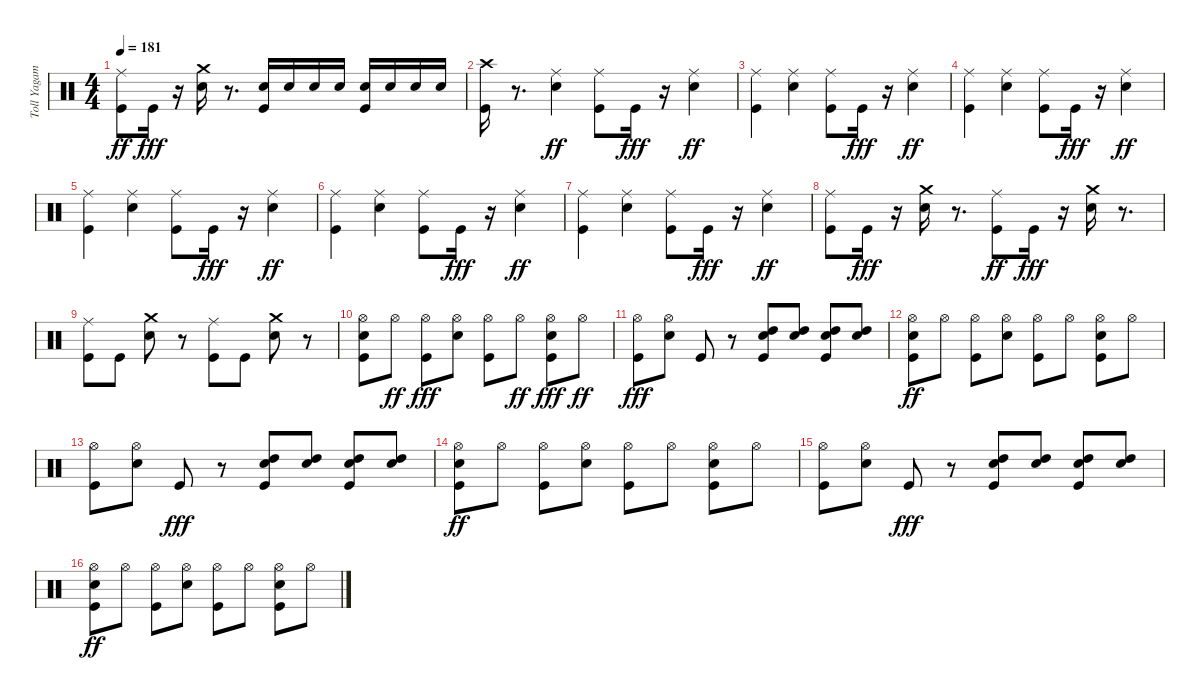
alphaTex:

\track ("Toll Yagami" "Toll Yagam") {instrument percussion}
\staff {score}
\articulation defaults
\ts (4 4)
\tempo 181
\clef neutral
\ks c
("Kick (hit)" "Ride (middle)").8{dy ff} "Kick (hit)".16{dy fff} r.16 ("Crash medium (hit)" "Snare (hit) 2").16 r.8{d} ("Kick (hit)" "Snare (hit) 2").16 "Snare (hit) 2".16 "Snare (hit) 2".16 "Snare (hit) 2".16 ("Kick (hit)" "Snare (hit) 2").16 "Snare (hit) 2".16 "Snare (hit) 2".16 "Snare (hit) 2".16 |
("Kick (hit)" "Crash high (hit)").16 r.8{d} ("Snare (hit) 2" "Ride (middle)").4{dy ff} ("Kick (hit)" "Ride (middle)").8 "Kick (hit)".16{dy fff} r.16 ("Snare (hit) 2" "Ride (middle)").4{dy ff} |
("Kick (hit)" "Ride (middle)").4 ("Snare (hit) 2" "Ride (middle)").4 ("Kick (hit)" "Ride (middle)").8 "Kick (hit)".16{dy fff} r.16 ("Snare (hit) 2" "Ride (middle)").4{dy ff} |
("Kick (hit)" "Ride (middle)").4 ("Snare (hit) 2" "Ride (middle)").4 ("Kick (hit)" "Ride (middle)").8 "Kick (hit)".16{dy fff} r.16 ("Snare (hit) 2" "Ride (middle)").4{dy ff} |
("Kick (hit)" "Ride (middle)").4 ("Snare (hit) 2" "Ride (middle)").4 ("Kick (hit)" "Ride (middle)").8 "Kick (hit)".16{dy fff} r.16 ("Snare (hit) 2" "Ride (middle)").4{dy ff} |
("Kick (hit)" "Ride (middle)").4 ("Snare (hit) 2" "Ride (middle)").4 ("Kick (hit)" "Ride (middle)").8 "Kick (hit)".16{dy fff} r.16 ("Snare (hit) 2" "Ride (middle)").4{dy ff} |
("Kick (hit)" "Ride (middle)").4 ("Snare (hit) 2" "Ride (middle)").4 ("Kick (hit)" "Ride (middle)").8 "Kick (hit)".16{dy fff} r.16 ("Snare (hit) 2" "Ride (middle)").4{dy ff} |
("Kick (hit)" "Ride (middle)").8 "Kick (hit)".16{dy fff} r.16 ("Crash medium (hit)" "Snare (hit) 2").16 r.8{d} ("Kick (hit)" "Ride (middle)").8{dy ff} "Kick (hit)".16{dy fff} r.16 ("Crash medium (hit)" "Snare (hit) 2").16 r.8{d} |
("Ride (middle)" "Kick (hit)").8 "Kick (hit)".8 ("Crash medium (hit)" "Snare (hit) 2").8 r.8 ("Ride (middle)" "Kick (hit)").8 "Kick (hit)".8 ("Crash medium (hit)" "Snare (hit) 2").8 r.8 |
("Hi-Hat (open)" "Kick (hit)" "Snare (hit) 2").8 "Hi-Hat (open)".8{dy ff} ("Hi-Hat (open)" "Kick (hit)").8{dy fff} ("Hi-Hat (open)" "Snare (hit) 2").8 ("Hi-Hat (open)" "Kick (hit)").8 "Hi-Hat (open)".8{dy ff} ("Hi-Hat (open)" "Kick (hit)" "Snare (hit) 2").8{dy fff} "Hi-Hat (open)".8{dy ff} |
("Hi-Hat (open)" "Kick (hit)").8{dy fff} ("Hi-Hat (open)" "Snare (hit) 2").8 "Kick (hit)".8 r.8 ("Kick (hit)" "Snare (hit) 2" "High Tom (hit)").8 ("Snare (hit) 2" "High Tom (hit)").8 ("Kick (hit)" "Snare (hit) 2" "High Tom (hit)").8 ("Snare (hit) 2" "High Tom (hit)").8 |
("Snare (hit) 2" "Kick (hit)" "Hi-Hat (open)").8{dy ff} "Hi-Hat (open)".8 ("Kick (hit)" "Hi-Hat (open)").8 ("Snare (hit) 2" "Hi-Hat (open)").8 ("Kick (hit)" "Hi-Hat (open)").8 "Hi-Hat (open)".8 ("Snare (hit) 2" "Kick (hit)" "Hi-Hat (open)").8 "Hi-Hat (open)".8 |
("Kick (hit)" "Hi-Hat (open)").8 ("Snare (hit) 2" "Hi-Hat (open)").8 "Kick (hit)".8{dy fff} r.8 ("High Tom (hit)" "Snare (hit) 2" "Kick (hit)").8 ("High Tom (hit)" "Snare (hit) 2").8 ("High Tom (hit)" "Snare (hit) 2" "Kick (hit)").8 ("High Tom (hit)" "Snare (hit) 2").8 |
("Snare (hit) 2" "Kick (hit)" "Hi-Hat (open)").8{dy ff} "Hi-Hat (open)".8 ("Kick (hit)" "Hi-Hat (open)").8 ("Snare (hit) 2" "Hi-Hat (open)").8 ("Kick (hit)" "Hi-Hat (open)").8 "Hi-Hat (open)".8 ("Snare (hit) 2" "Kick (hit)" "Hi-Hat (open)").8 "Hi-Hat (open)".8 |
("Kick (hit)" "Hi-Hat (open)").8 ("Snare (hit) 2" "Hi-Hat (open)").8 "Kick (hit)".8{dy fff} r.8 ("High Tom (hit)" "Snare (hit) 2" "Kick (hit)").8 ("High Tom (hit)" "Snare (hit) 2").8 ("High Tom (hit)" "Snare (hit) 2" "Kick (hit)").8 ("High Tom (hit)" "Snare (hit) 2").8 |
("Snare (hit) 2" "Kick (hit)" "Hi-Hat (open)").8{dy ff} "Hi-Hat (open)".8 ("Kick (hit)" "Hi-Hat (open)").8 ("Snare (hit) 2" "Hi-Hat (open)").8 ("Kick (hit)" "Hi-Hat (open)").8 "Hi-Hat (open)".8 ("Snare (hit) 2" "Kick (hit)" "Hi-Hat (open)").8 "Hi-Hat (open)".8
